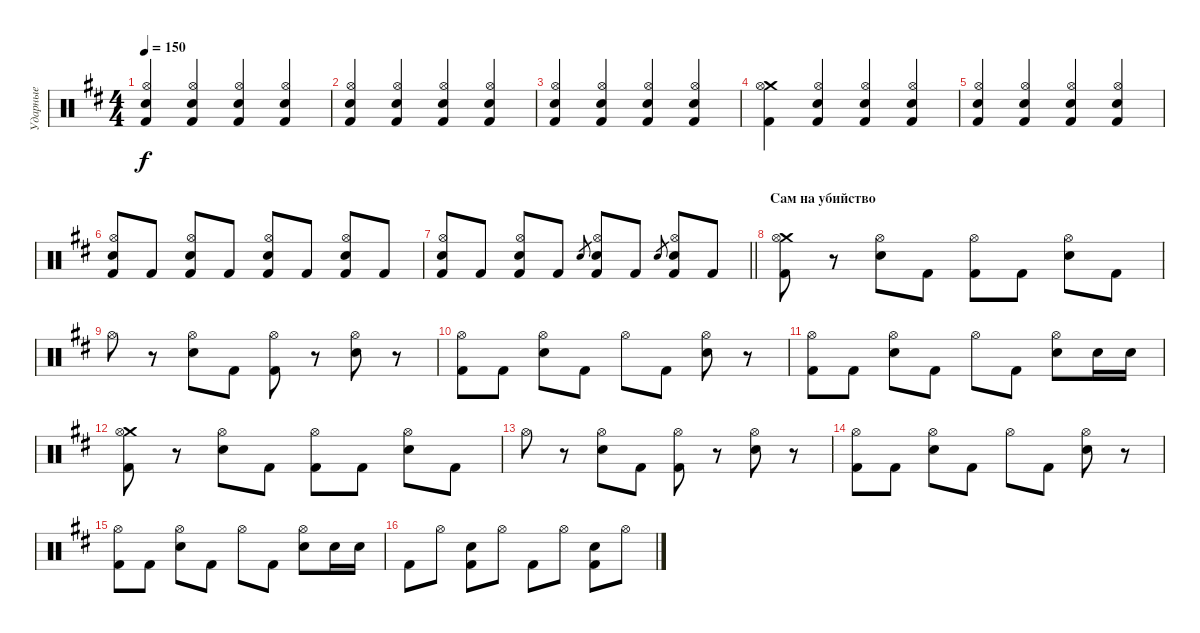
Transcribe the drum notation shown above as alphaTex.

\track ("Ударные" "Ударные") {instrument percussion}
\staff {score}
\articulation defaults
\ts (4 4)
\tempo 150
\clef neutral
\ks bminor
("Electric Snare (hit)" "Hi-Hat (open)" "Kick (hit) 2").4{dy f} ("Electric Snare (hit)" "Hi-Hat (open)" "Kick (hit) 2").4 ("Electric Snare (hit)" "Hi-Hat (open)" "Kick (hit) 2").4 ("Electric Snare (hit)" "Hi-Hat (open)" "Kick (hit) 2").4 |
("Electric Snare (hit)" "Hi-Hat (open)" "Kick (hit) 2").4 ("Electric Snare (hit)" "Hi-Hat (open)" "Kick (hit) 2").4 ("Electric Snare (hit)" "Hi-Hat (open)" "Kick (hit) 2").4 ("Electric Snare (hit)" "Hi-Hat (open)" "Kick (hit) 2").4 |
("Electric Snare (hit)" "Hi-Hat (open)" "Kick (hit) 2").4 ("Electric Snare (hit)" "Hi-Hat (open)" "Kick (hit) 2").4 ("Electric Snare (hit)" "Hi-Hat (open)" "Kick (hit) 2").4 ("Electric Snare (hit)" "Hi-Hat (open)" "Kick (hit) 2").4 |
("Crash medium (hit)" "Kick (hit) 2" "Hi-Hat (open)").4 ("Electric Snare (hit)" "Hi-Hat (open)" "Kick (hit) 2").4 ("Electric Snare (hit)" "Hi-Hat (open)" "Kick (hit) 2").4 ("Electric Snare (hit)" "Hi-Hat (open)" "Kick (hit) 2").4 |
("Electric Snare (hit)" "Hi-Hat (open)" "Kick (hit) 2").4 ("Electric Snare (hit)" "Hi-Hat (open)" "Kick (hit) 2").4 ("Electric Snare (hit)" "Hi-Hat (open)" "Kick (hit) 2").4 ("Electric Snare (hit)" "Hi-Hat (open)" "Kick (hit) 2").4 |
("Electric Snare (hit)" "Hi-Hat (open)" "Kick (hit) 2").8 "Kick (hit) 2".8 ("Electric Snare (hit)" "Hi-Hat (open)" "Kick (hit) 2").8 "Kick (hit) 2".8 ("Electric Snare (hit)" "Hi-Hat (open)" "Kick (hit) 2").8 "Kick (hit) 2".8 ("Electric Snare (hit)" "Hi-Hat (open)" "Kick (hit) 2").8 "Kick (hit) 2".8 |
\barLineRight lightlight
("Electric Snare (hit)" "Hi-Hat (open)" "Kick (hit) 2").8 "Kick (hit) 2".8 ("Electric Snare (hit)" "Hi-Hat (open)" "Kick (hit) 2").8 "Kick (hit) 2".8 "Electric Snare (hit)".8{gr} ("Electric Snare (hit)" "Hi-Hat (open)" "Kick (hit) 2").8 "Kick (hit) 2".8 "Electric Snare (hit)".8{gr} ("Electric Snare (hit)" "Hi-Hat (open)" "Kick (hit) 2").8 "Kick (hit) 2".8 |
\section ("" "Сам на убийство")
("Crash medium (hit)" "Kick (hit) 2" "Hi-Hat (open)").8 r.8 ("Electric Snare (hit)" "Hi-Hat (open)").8 "Kick (hit) 2".8 ("Kick (hit) 2" "Hi-Hat (open)").8 "Kick (hit) 2".8 ("Electric Snare (hit)" "Hi-Hat (open)").8 "Kick (hit) 2".8 |
"Hi-Hat (open)".8 r.8 ("Electric Snare (hit)" "Hi-Hat (open)").8 "Kick (hit) 2".8 ("Kick (hit) 2" "Hi-Hat (open)").8 r.8 ("Electric Snare (hit)" "Hi-Hat (open)").8 r.8 |
("Kick (hit) 2" "Hi-Hat (open)").8 "Kick (hit) 2".8 ("Electric Snare (hit)" "Hi-Hat (open)").8 "Kick (hit) 2".8 "Hi-Hat (open)".8 "Kick (hit) 2".8 ("Electric Snare (hit)" "Hi-Hat (open)").8 r.8 |
("Kick (hit) 2" "Hi-Hat (open)").8 "Kick (hit) 2".8 ("Electric Snare (hit)" "Hi-Hat (open)").8 "Kick (hit) 2".8 "Hi-Hat (open)".8 "Kick (hit) 2".8 ("Electric Snare (hit)" "Hi-Hat (open)").8 "Electric Snare (hit)".16 "Electric Snare (hit)".16 |
("Crash medium (hit)" "Kick (hit) 2" "Hi-Hat (open)").8 r.8 ("Electric Snare (hit)" "Hi-Hat (open)").8 "Kick (hit) 2".8 ("Kick (hit) 2" "Hi-Hat (open)").8 "Kick (hit) 2".8 ("Electric Snare (hit)" "Hi-Hat (open)").8 "Kick (hit) 2".8 |
"Hi-Hat (open)".8 r.8 ("Electric Snare (hit)" "Hi-Hat (open)").8 "Kick (hit) 2".8 ("Kick (hit) 2" "Hi-Hat (open)").8 r.8 ("Electric Snare (hit)" "Hi-Hat (open)").8 r.8 |
("Kick (hit) 2" "Hi-Hat (open)").8 "Kick (hit) 2".8 ("Electric Snare (hit)" "Hi-Hat (open)").8 "Kick (hit) 2".8 "Hi-Hat (open)".8 "Kick (hit) 2".8 ("Electric Snare (hit)" "Hi-Hat (open)").8 r.8 |
("Kick (hit) 2" "Hi-Hat (open)").8 "Kick (hit) 2".8 ("Electric Snare (hit)" "Hi-Hat (open)").8 "Kick (hit) 2".8 "Hi-Hat (open)".8 "Kick (hit) 2".8 ("Electric Snare (hit)" "Hi-Hat (open)").8 "Electric Snare (hit)".16 "Electric Snare (hit)".16 |
"Kick (hit) 2".8 "Hi-Hat (open)".8 ("Electric Snare (hit)" "Kick (hit) 2").8 "Hi-Hat (open)".8 "Kick (hit) 2".8 "Hi-Hat (open)".8 ("Electric Snare (hit)" "Kick (hit) 2").8 "Hi-Hat (open)".8
